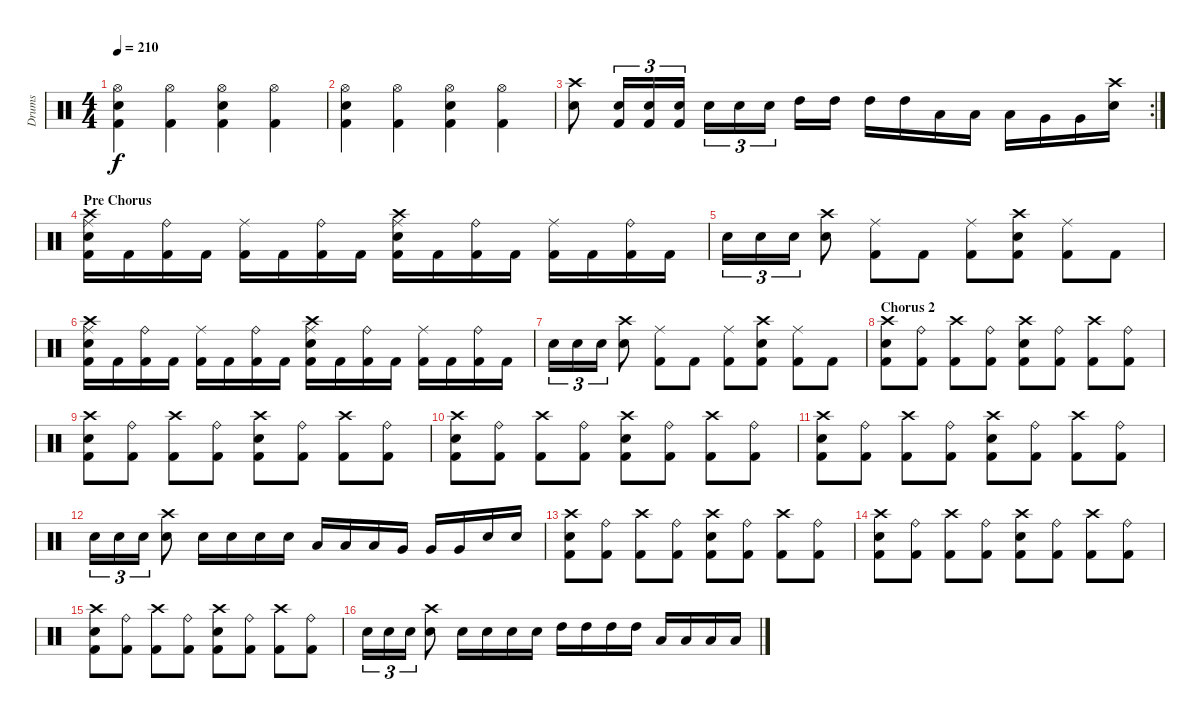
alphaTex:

\track ("Drums" "Drums") {instrument percussion}
\staff {score}
\articulation defaults
\ts (4 4)
\tempo 210
\clef neutral
\ks c
("Hi-Hat (open)" "Electric Snare (hit)" "Kick (hit) 2").4{dy f} ("Hi-Hat (open)" "Kick (hit) 2").4 ("Hi-Hat (open)" "Electric Snare (hit)" "Kick (hit) 2").4 ("Hi-Hat (open)" "Kick (hit) 2").4 |
("Hi-Hat (open)" "Electric Snare (hit)" "Kick (hit) 2").4 ("Hi-Hat (open)" "Kick (hit) 2").4 ("Hi-Hat (open)" "Electric Snare (hit)" "Kick (hit) 2").4 ("Hi-Hat (open)" "Kick (hit) 2").4 |
\rc 2
("Crash high (hit)" "Electric Snare (hit)").8 ("Kick (hit) 2" "Electric Snare (hit)").16{tu (3 2)} ("Kick (hit) 2" "Electric Snare (hit)").16{tu (3 2)} ("Kick (hit) 2" "Electric Snare (hit)").16{tu (3 2)} "Electric Snare (hit)".16{tu (3 2)} "Electric Snare (hit)".16{tu (3 2)} "Electric Snare (hit)".16{tu (3 2)} "High Tom (hit)".16 "High Tom (hit)".16 "High Tom (hit)".16 "High Tom (hit)".16 "Low Tom (hit)".16 "Low Tom (hit)".16 "Low Tom (hit)".16 "Very Low Tom (hit)".16 "Very Low Tom (hit)".16 ("Electric Snare (hit)" "Crash high (hit)").16 |
\section ("" "Pre Chorus")
("Kick (hit) 2" "Electric Snare (hit)" "Crash high (hit)" "Ride (middle)").16 "Kick (hit) 2".16 ("Kick (hit) 2" "Ride (bell)").16 "Kick (hit) 2".16 ("Kick (hit) 2" "Ride (middle)").16 "Kick (hit) 2".16 ("Kick (hit) 2" "Ride (bell)").16 "Kick (hit) 2".16 ("Kick (hit) 2" "Electric Snare (hit)" "Crash high (hit)" "Ride (middle)").16 "Kick (hit) 2".16 ("Kick (hit) 2" "Ride (bell)").16 "Kick (hit) 2".16 ("Kick (hit) 2" "Ride (middle)").16 "Kick (hit) 2".16 ("Kick (hit) 2" "Ride (bell)").16 "Kick (hit) 2".16 |
"Electric Snare (hit)".16{tu (3 2)} "Electric Snare (hit)".16{tu (3 2)} "Electric Snare (hit)".16{tu (3 2)} ("Crash high (hit)" "Electric Snare (hit)").8 ("Kick (hit) 2" "Ride (middle)").8 "Kick (hit) 2".8 ("Kick (hit) 2" "Ride (middle)").8 ("Kick (hit) 2" "Crash high (hit)" "Electric Snare (hit)").8 ("Kick (hit) 2" "Ride (middle)").8 "Kick (hit) 2".8 |
("Kick (hit) 2" "Electric Snare (hit)" "Crash high (hit)" "Ride (middle)").16 "Kick (hit) 2".16 ("Kick (hit) 2" "Ride (bell)").16 "Kick (hit) 2".16 ("Kick (hit) 2" "Ride (middle)").16 "Kick (hit) 2".16 ("Kick (hit) 2" "Ride (bell)").16 "Kick (hit) 2".16 ("Kick (hit) 2" "Electric Snare (hit)" "Crash high (hit)" "Ride (middle)").16 "Kick (hit) 2".16 ("Kick (hit) 2" "Ride (bell)").16 "Kick (hit) 2".16 ("Kick (hit) 2" "Ride (middle)").16 "Kick (hit) 2".16 ("Kick (hit) 2" "Ride (bell)").16 "Kick (hit) 2".16 |
"Electric Snare (hit)".16{tu (3 2)} "Electric Snare (hit)".16{tu (3 2)} "Electric Snare (hit)".16{tu (3 2)} ("Crash high (hit)" "Electric Snare (hit)").8 ("Kick (hit) 2" "Ride (middle)").8 "Kick (hit) 2".8 ("Kick (hit) 2" "Ride (middle)").8 ("Kick (hit) 2" "Crash high (hit)" "Electric Snare (hit)").8 ("Kick (hit) 2" "Ride (middle)").8 "Kick (hit) 2".8 |
\section ("" "Chorus 2")
("Kick (hit) 2" "Electric Snare (hit)" "Crash high (hit)").8 ("Kick (hit) 2" "Ride (bell)").8 ("Kick (hit) 2" "Crash high (hit)").8 ("Kick (hit) 2" "Ride (bell)").8 ("Kick (hit) 2" "Crash high (hit)" "Electric Snare (hit)").8 ("Kick (hit) 2" "Ride (bell)").8 ("Kick (hit) 2" "Crash high (hit)").8 ("Kick (hit) 2" "Ride (bell)").8 |
("Kick (hit) 2" "Electric Snare (hit)" "Crash high (hit)").8 ("Kick (hit) 2" "Ride (bell)").8 ("Kick (hit) 2" "Crash high (hit)").8 ("Kick (hit) 2" "Ride (bell)").8 ("Kick (hit) 2" "Crash high (hit)" "Electric Snare (hit)").8 ("Kick (hit) 2" "Ride (bell)").8 ("Kick (hit) 2" "Crash high (hit)").8 ("Kick (hit) 2" "Ride (bell)").8 |
("Kick (hit) 2" "Electric Snare (hit)" "Crash high (hit)").8 ("Kick (hit) 2" "Ride (bell)").8 ("Kick (hit) 2" "Crash high (hit)").8 ("Kick (hit) 2" "Ride (bell)").8 ("Kick (hit) 2" "Crash high (hit)" "Electric Snare (hit)").8 ("Kick (hit) 2" "Ride (bell)").8 ("Kick (hit) 2" "Crash high (hit)").8 ("Kick (hit) 2" "Ride (bell)").8 |
("Kick (hit) 2" "Electric Snare (hit)" "Crash high (hit)").8 ("Kick (hit) 2" "Ride (bell)").8 ("Kick (hit) 2" "Crash high (hit)").8 ("Kick (hit) 2" "Ride (bell)").8 ("Kick (hit) 2" "Crash high (hit)" "Electric Snare (hit)").8 ("Kick (hit) 2" "Ride (bell)").8 ("Kick (hit) 2" "Crash high (hit)").8 ("Kick (hit) 2" "Ride (bell)").8 |
"Electric Snare (hit)".16{tu (3 2)} "Electric Snare (hit)".16{tu (3 2)} "Electric Snare (hit)".16{tu (3 2)} ("Electric Snare (hit)" "Crash high (hit)").8 "Electric Snare (hit)".16 "Electric Snare (hit)".16 "Electric Snare (hit)".16 "Electric Snare (hit)".16 "Low Tom (hit)".16 "Low Tom (hit)".16 "Low Tom (hit)".16 "Very Low Tom (hit)".16 "Very Low Tom (hit)".16 "Very Low Tom (hit)".16 "Electric Snare (hit)".16 "Electric Snare (hit)".16 |
("Kick (hit) 2" "Electric Snare (hit)" "Crash high (hit)").8 ("Kick (hit) 2" "Ride (bell)").8 ("Kick (hit) 2" "Crash high (hit)").8 ("Kick (hit) 2" "Ride (bell)").8 ("Kick (hit) 2" "Crash high (hit)" "Electric Snare (hit)").8 ("Kick (hit) 2" "Ride (bell)").8 ("Kick (hit) 2" "Crash high (hit)").8 ("Kick (hit) 2" "Ride (bell)").8 |
("Kick (hit) 2" "Electric Snare (hit)" "Crash high (hit)").8 ("Kick (hit) 2" "Ride (bell)").8 ("Kick (hit) 2" "Crash high (hit)").8 ("Kick (hit) 2" "Ride (bell)").8 ("Kick (hit) 2" "Crash high (hit)" "Electric Snare (hit)").8 ("Kick (hit) 2" "Ride (bell)").8 ("Kick (hit) 2" "Crash high (hit)").8 ("Kick (hit) 2" "Ride (bell)").8 |
("Kick (hit) 2" "Electric Snare (hit)" "Crash high (hit)").8 ("Kick (hit) 2" "Ride (bell)").8 ("Kick (hit) 2" "Crash high (hit)").8 ("Kick (hit) 2" "Ride (bell)").8 ("Kick (hit) 2" "Crash high (hit)" "Electric Snare (hit)").8 ("Kick (hit) 2" "Ride (bell)").8 ("Kick (hit) 2" "Crash high (hit)").8 ("Kick (hit) 2" "Ride (bell)").8 |
"Electric Snare (hit)".16{tu (3 2)} "Electric Snare (hit)".16{tu (3 2)} "Electric Snare (hit)".16{tu (3 2)} ("Electric Snare (hit)" "Crash high (hit)").8 "Electric Snare (hit)".16 "Electric Snare (hit)".16 "Electric Snare (hit)".16 "Electric Snare (hit)".16 "High Tom (hit)".16 "High Tom (hit)".16 "High Tom (hit)".16 "High Tom (hit)".16 "Low Tom (hit)".16 "Low Tom (hit)".16 "Low Tom (hit)".16 "Low Tom (hit)".16
